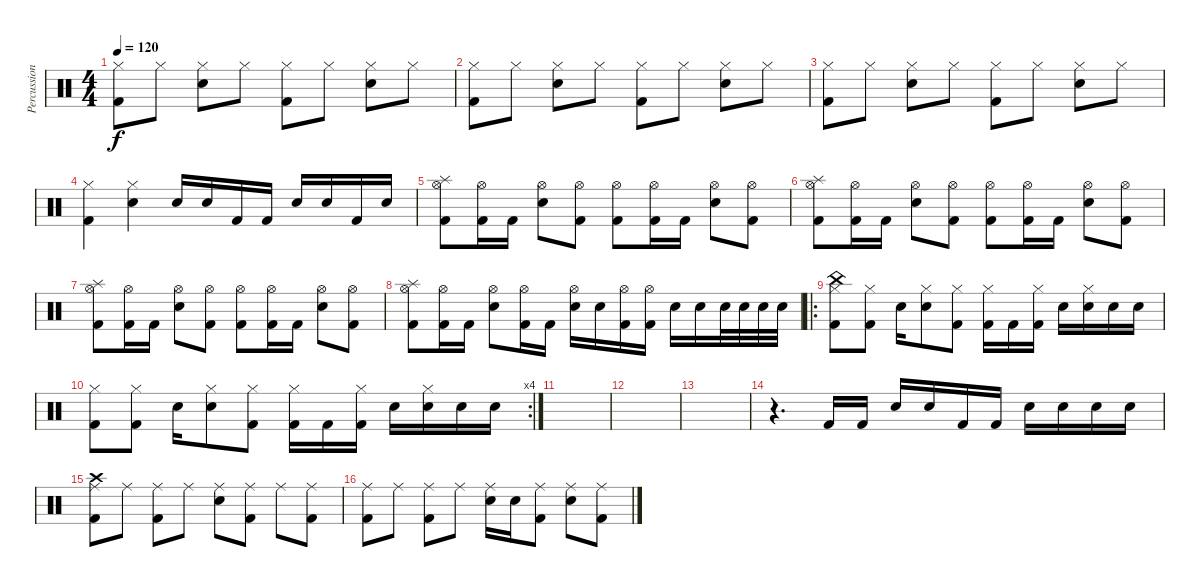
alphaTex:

\track ("Percussion" "Percussion") {instrument percussion}
\staff {score}
\articulation defaults
\ts (4 4)
\tempo 120
\clef neutral
\ks c
("Kick (hit) 2" "Hi-Hat (closed)").8{dy f} "Hi-Hat (closed)".8 ("Snare (hit) 2" "Hi-Hat (closed)").8 "Hi-Hat (closed)".8 ("Kick (hit) 2" "Hi-Hat (closed)").8 "Hi-Hat (closed)".8 ("Snare (hit) 2" "Hi-Hat (closed)").8 "Hi-Hat (closed)".8 |
("Kick (hit) 2" "Hi-Hat (closed)").8 "Hi-Hat (closed)".8 ("Snare (hit) 2" "Hi-Hat (closed)").8 "Hi-Hat (closed)".8 ("Kick (hit) 2" "Hi-Hat (closed)").8 "Hi-Hat (closed)".8 ("Snare (hit) 2" "Hi-Hat (closed)").8 "Hi-Hat (closed)".8 |
("Kick (hit) 2" "Hi-Hat (closed)").8 "Hi-Hat (closed)".8 ("Snare (hit) 2" "Hi-Hat (closed)").8 "Hi-Hat (closed)".8 ("Kick (hit) 2" "Hi-Hat (closed)").8 "Hi-Hat (closed)".8 ("Snare (hit) 2" "Hi-Hat (closed)").8 "Hi-Hat (closed)".8 |
("Kick (hit) 2" "Hi-Hat (closed)").4 ("Snare (hit) 2" "Hi-Hat (closed)").4 "Snare (hit) 2".16 "Snare (hit) 2".16 "Kick (hit) 2".16 "Kick (hit) 2".16 "Snare (hit) 2".16 "Snare (hit) 2".16 "Kick (hit) 2".16 "Snare (hit) 2".16 |
("Splash (hit)" "Kick (hit) 2" "Hi-Hat (open)").8 ("Kick (hit) 2" "Hi-Hat (open)").16 "Kick (hit) 2".16 ("Snare (hit) 2" "Hi-Hat (open)").8 ("Kick (hit) 2" "Hi-Hat (open)").8 ("Kick (hit) 2" "Hi-Hat (open)").8 ("Kick (hit) 2" "Hi-Hat (open)").16 "Kick (hit) 2".16 ("Snare (hit) 2" "Hi-Hat (open)").8 ("Kick (hit) 2" "Hi-Hat (open)").8 |
("Splash (hit)" "Kick (hit) 2" "Hi-Hat (open)").8 ("Kick (hit) 2" "Hi-Hat (open)").16 "Kick (hit) 2".16 ("Snare (hit) 2" "Hi-Hat (open)").8 ("Kick (hit) 2" "Hi-Hat (open)").8 ("Kick (hit) 2" "Hi-Hat (open)").8 ("Kick (hit) 2" "Hi-Hat (open)").16 "Kick (hit) 2".16 ("Snare (hit) 2" "Hi-Hat (open)").8 ("Kick (hit) 2" "Hi-Hat (open)").8 |
("Splash (hit)" "Kick (hit) 2" "Hi-Hat (open)").8 ("Kick (hit) 2" "Hi-Hat (open)").16 "Kick (hit) 2".16 ("Snare (hit) 2" "Hi-Hat (open)").8 ("Kick (hit) 2" "Hi-Hat (open)").8 ("Kick (hit) 2" "Hi-Hat (open)").8 ("Kick (hit) 2" "Hi-Hat (open)").16 "Kick (hit) 2".16 ("Snare (hit) 2" "Hi-Hat (open)").8 ("Kick (hit) 2" "Hi-Hat (open)").8 |
("Splash (hit)" "Kick (hit) 2" "Hi-Hat (open)").8 ("Kick (hit) 2" "Hi-Hat (open)").16 "Kick (hit) 2".16 ("Snare (hit) 2" "Hi-Hat (open)").8 ("Kick (hit) 2" "Hi-Hat (open)").16 "Kick (hit) 2".16 ("Snare (hit) 2" "Hi-Hat (open)").16 "Snare (hit) 2".16 ("Kick (hit) 2" "Hi-Hat (open)").16 ("Kick (hit) 2" "Hi-Hat (open)").16 "Snare (hit) 2".16 "Snare (hit) 2".16 "Snare (hit) 2".32 "Snare (hit) 2".32 "Snare (hit) 2".32 "Snare (hit) 2".32 |
\ro
("Kick (hit) 2" "Hi-Hat (closed)" "China (hit)").8 ("Kick (hit) 2" "Hi-Hat (closed)").8 "Snare (hit) 2".16 ("Snare (hit) 2" "Hi-Hat (closed)").8 ("Kick (hit) 2" "Hi-Hat (closed)").8 ("Kick (hit) 2" "Hi-Hat (closed)").16 "Kick (hit) 2".16 ("Kick (hit) 2" "Hi-Hat (closed)").16 "Snare (hit) 2".16 ("Snare (hit) 2" "Hi-Hat (closed)").16 "Snare (hit) 2".16 "Snare (hit) 2".16 |
\rc 4
("Kick (hit) 2" "Hi-Hat (closed)").8 ("Kick (hit) 2" "Hi-Hat (closed)").8 "Snare (hit) 2".16 ("Snare (hit) 2" "Hi-Hat (closed)").8 ("Kick (hit) 2" "Hi-Hat (closed)").8 ("Kick (hit) 2" "Hi-Hat (closed)").16 "Kick (hit) 2".16 ("Kick (hit) 2" "Hi-Hat (closed)").16 "Snare (hit) 2".16 ("Snare (hit) 2" "Hi-Hat (closed)").16 "Snare (hit) 2".16 "Snare (hit) 2".16 |
|
|
|
r.4{d} "Kick (hit) 2".16 "Kick (hit) 2".16 "Snare (hit) 2".16 "Snare (hit) 2".16 "Kick (hit) 2".16 "Kick (hit) 2".16 "Snare (hit) 2".16 "Snare (hit) 2".16 "Snare (hit) 2".16 "Snare (hit) 2".16 |
("Kick (hit) 2" "Ride (middle)" "Crash high (hit)").8 "Ride (middle)".8 ("Kick (hit) 2" "Ride (middle)").8 "Ride (middle)".8 ("Snare (hit) 2" "Ride (middle)").8 ("Kick (hit) 2" "Ride (middle)").8 "Ride (middle)".8 ("Kick (hit) 2" "Ride (middle)").8 |
("Kick (hit) 2" "Ride (middle)").8 "Ride (middle)".8 ("Kick (hit) 2" "Ride (middle)").8 "Ride (middle)".8 ("Snare (hit) 2" "Ride (middle)").16 "Snare (hit) 2".16 ("Kick (hit) 2" "Ride (middle)").8 ("Snare (hit) 2" "Ride (middle)").8 ("Kick (hit) 2" "Ride (middle)").8
